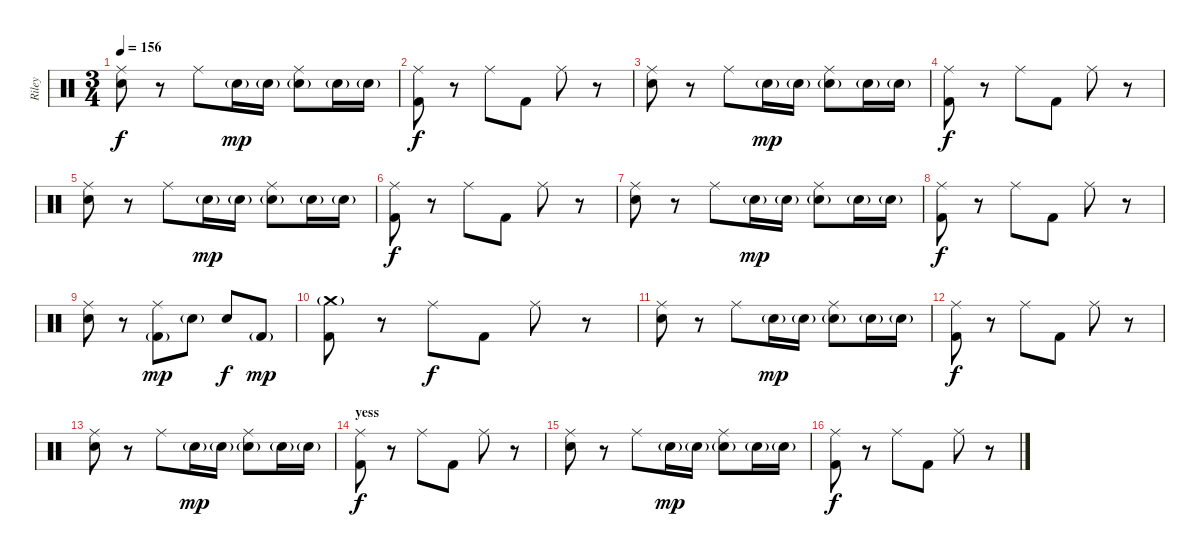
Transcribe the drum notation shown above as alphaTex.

\track ("Riley" "Riley") {instrument percussion}
\staff {score}
\articulation defaults
\ts (3 4)
\tempo 156
\clef neutral
\ks c
("Ride (middle)" "Electric Snare (hit)").8{dy f} r.8 "Ride (middle)".8 "Electric Snare (hit)"{g}.16{dy mp} "Electric Snare (hit)"{g}.16 ("Ride (middle)" "Electric Snare (hit)"{g}).8 "Electric Snare (hit)"{g}.16 "Electric Snare (hit)"{g}.16 |
("Ride (middle)" "Kick (hit) 2").8{dy f} r.8 "Ride (middle)".8 "Kick (hit) 2".8 "Ride (middle)".8 r.8 |
("Ride (middle)" "Electric Snare (hit)").8 r.8 "Ride (middle)".8 "Electric Snare (hit)"{g}.16{dy mp} "Electric Snare (hit)"{g}.16 ("Ride (middle)" "Electric Snare (hit)"{g}).8 "Electric Snare (hit)"{g}.16 "Electric Snare (hit)"{g}.16 |
("Ride (middle)" "Kick (hit) 2").8{dy f} r.8 "Ride (middle)".8 "Kick (hit) 2".8 "Ride (middle)".8 r.8 |
("Ride (middle)" "Electric Snare (hit)").8 r.8 "Ride (middle)".8 "Electric Snare (hit)"{g}.16{dy mp} "Electric Snare (hit)"{g}.16 ("Ride (middle)" "Electric Snare (hit)"{g}).8 "Electric Snare (hit)"{g}.16 "Electric Snare (hit)"{g}.16 |
("Ride (middle)" "Kick (hit) 2").8{dy f} r.8 "Ride (middle)".8 "Kick (hit) 2".8 "Ride (middle)".8 r.8 |
("Ride (middle)" "Electric Snare (hit)").8 r.8 "Ride (middle)".8 "Electric Snare (hit)"{g}.16{dy mp} "Electric Snare (hit)"{g}.16 ("Ride (middle)" "Electric Snare (hit)"{g}).8 "Electric Snare (hit)"{g}.16 "Electric Snare (hit)"{g}.16 |
("Ride (middle)" "Kick (hit) 2").8{dy f} r.8 "Ride (middle)".8 "Kick (hit) 2".8 "Ride (middle)".8 r.8 |
("Ride (middle)" "Electric Snare (hit)").8 r.8 ("Ride (middle)" "Kick (hit) 2"{g}).8{dy mp} "Electric Snare (hit)"{g}.8 "Electric Snare (hit)".8{dy f} "Kick (hit) 2"{g}.8{dy mp} |
("Crash medium (hit)"{g} "Kick (hit) 2").8 r.8 "Ride (middle)".8{dy f} "Kick (hit) 2".8 "Ride (middle)".8 r.8 |
("Ride (middle)" "Electric Snare (hit)").8 r.8 "Ride (middle)".8 "Electric Snare (hit)"{g}.16{dy mp} "Electric Snare (hit)"{g}.16 ("Ride (middle)" "Electric Snare (hit)"{g}).8 "Electric Snare (hit)"{g}.16 "Electric Snare (hit)"{g}.16 |
("Ride (middle)" "Kick (hit) 2").8{dy f} r.8 "Ride (middle)".8 "Kick (hit) 2".8 "Ride (middle)".8 r.8 |
("Ride (middle)" "Electric Snare (hit)").8 r.8 "Ride (middle)".8 "Electric Snare (hit)"{g}.16{dy mp} "Electric Snare (hit)"{g}.16 ("Ride (middle)" "Electric Snare (hit)"{g}).8 "Electric Snare (hit)"{g}.16 "Electric Snare (hit)"{g}.16 |
\section ("" "yess")
("Ride (middle)" "Kick (hit) 2").8{dy f} r.8 "Ride (middle)".8 "Kick (hit) 2".8 "Ride (middle)".8 r.8 |
("Ride (middle)" "Electric Snare (hit)").8 r.8 "Ride (middle)".8 "Electric Snare (hit)"{g}.16{dy mp} "Electric Snare (hit)"{g}.16 ("Ride (middle)" "Electric Snare (hit)"{g}).8 "Electric Snare (hit)"{g}.16 "Electric Snare (hit)"{g}.16 |
("Ride (middle)" "Kick (hit) 2").8{dy f} r.8 "Ride (middle)".8 "Kick (hit) 2".8 "Ride (middle)".8 r.8
